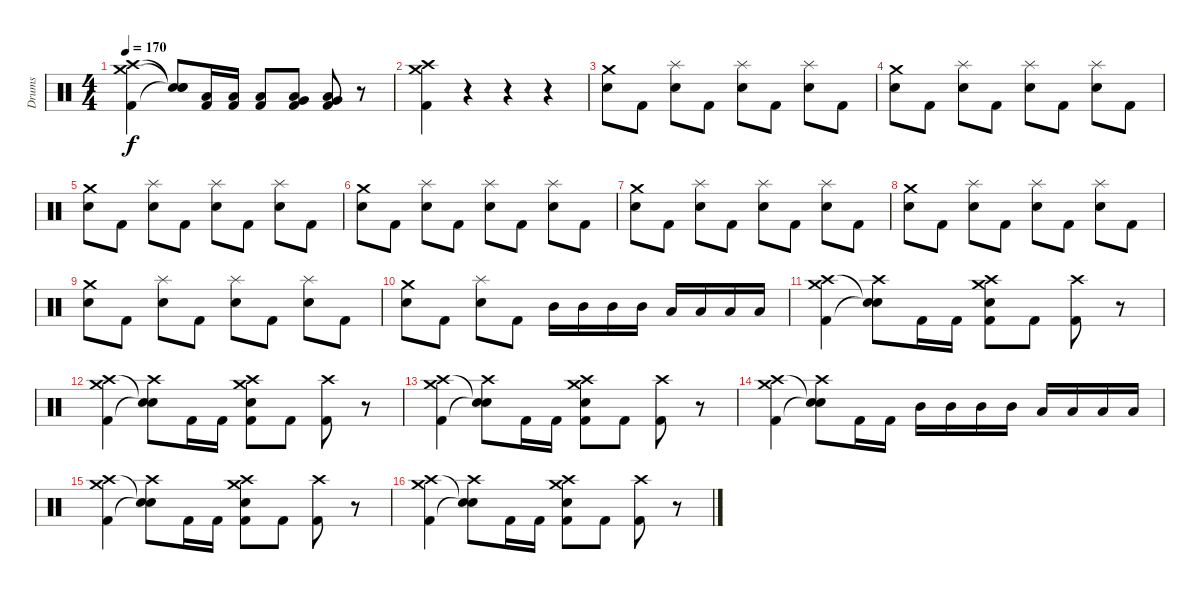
\track ("Drums" "Drums") {instrument percussion}
\staff {score}
\articulation defaults
\ts (4 4)
\tempo 170
\clef neutral
\ks c
("Crash medium (hit)" "Crash high (hit)" "Kick (hit) 2").4{dy f} ("Snare (hit)"{t} "Snare (hit)"{t} "Snare (hit)"{t}).8 ("Low Tom (hit)" "Kick (hit) 2").16 ("Low Tom (hit)" "Kick (hit) 2").16 ("Low Tom (hit)" "Kick (hit) 2").8 ("Low Tom (hit)" "Very Low Tom (hit)" "Kick (hit) 2").8 ("Low Tom (hit)" "Very Low Tom (hit)" "Kick (hit) 2").8 r.8 |
("Crash medium (hit)" "Crash high (hit)" "Kick (hit) 2").4 r.4 r.4 r.4 |
("Crash medium (hit)" "Snare (hit) 2").8 "Kick (hit) 2".8 ("Splash (hit)" "Snare (hit) 2").8 "Kick (hit) 2".8 ("Splash (hit)" "Snare (hit) 2").8 "Kick (hit) 2".8 ("Splash (hit)" "Snare (hit) 2").8 "Kick (hit) 2".8 |
("Crash medium (hit)" "Snare (hit) 2").8 "Kick (hit) 2".8 ("Splash (hit)" "Snare (hit) 2").8 "Kick (hit) 2".8 ("Splash (hit)" "Snare (hit) 2").8 "Kick (hit) 2".8 ("Splash (hit)" "Snare (hit) 2").8 "Kick (hit) 2".8 |
("Crash medium (hit)" "Snare (hit) 2").8 "Kick (hit) 2".8 ("Splash (hit)" "Snare (hit) 2").8 "Kick (hit) 2".8 ("Splash (hit)" "Snare (hit) 2").8 "Kick (hit) 2".8 ("Splash (hit)" "Snare (hit) 2").8 "Kick (hit) 2".8 |
("Crash medium (hit)" "Snare (hit) 2").8 "Kick (hit) 2".8 ("Splash (hit)" "Snare (hit) 2").8 "Kick (hit) 2".8 ("Splash (hit)" "Snare (hit) 2").8 "Kick (hit) 2".8 ("Splash (hit)" "Snare (hit) 2").8 "Kick (hit) 2".8 |
("Crash medium (hit)" "Snare (hit) 2").8 "Kick (hit) 2".8 ("Splash (hit)" "Snare (hit) 2").8 "Kick (hit) 2".8 ("Splash (hit)" "Snare (hit) 2").8 "Kick (hit) 2".8 ("Splash (hit)" "Snare (hit) 2").8 "Kick (hit) 2".8 |
("Crash medium (hit)" "Snare (hit) 2").8 "Kick (hit) 2".8 ("Splash (hit)" "Snare (hit) 2").8 "Kick (hit) 2".8 ("Splash (hit)" "Snare (hit) 2").8 "Kick (hit) 2".8 ("Splash (hit)" "Snare (hit) 2").8 "Kick (hit) 2".8 |
("Crash medium (hit)" "Snare (hit) 2").8 "Kick (hit) 2".8 ("Splash (hit)" "Snare (hit) 2").8 "Kick (hit) 2".8 ("Splash (hit)" "Snare (hit) 2").8 "Kick (hit) 2".8 ("Splash (hit)" "Snare (hit) 2").8 "Kick (hit) 2".8 |
("Crash medium (hit)" "Snare (hit) 2").8 "Kick (hit) 2".8 ("Splash (hit)" "Snare (hit) 2").8 "Kick (hit) 2".8 "Mid Tom (hit)".16 "Mid Tom (hit)".16 "Mid Tom (hit)".16 "Mid Tom (hit)".16 "Low Tom (hit)".16 "Low Tom (hit)".16 "Low Tom (hit)".16 "Low Tom (hit)".16 |
("Crash medium (hit)" "Crash high (hit)" "Kick (hit) 2").4 ("Crash high (hit)" "Snare (hit)"{t} "Snare (hit)"{t}).8 "Kick (hit) 2".16 "Kick (hit) 2".16 ("Crash high (hit)" "Snare (hit) 2" "Crash medium (hit)" "Kick (hit) 2").8 "Kick (hit) 2".8 ("Crash high (hit)" "Kick (hit) 2").8 r.8 |
("Crash medium (hit)" "Crash high (hit)" "Kick (hit) 2").4 ("Crash high (hit)" "Snare (hit)"{t} "Snare (hit)"{t}).8 "Kick (hit) 2".16 "Kick (hit) 2".16 ("Crash high (hit)" "Snare (hit) 2" "Crash medium (hit)" "Kick (hit) 2").8 "Kick (hit) 2".8 ("Crash high (hit)" "Kick (hit) 2").8 r.8 |
("Crash medium (hit)" "Crash high (hit)" "Kick (hit) 2").4 ("Crash high (hit)" "Snare (hit)"{t} "Snare (hit)"{t}).8 "Kick (hit) 2".16 "Kick (hit) 2".16 ("Crash high (hit)" "Snare (hit) 2" "Crash medium (hit)" "Kick (hit) 2").8 "Kick (hit) 2".8 ("Crash high (hit)" "Kick (hit) 2").8 r.8 |
("Crash medium (hit)" "Crash high (hit)" "Kick (hit) 2").4 ("Crash high (hit)" "Snare (hit)"{t} "Snare (hit)"{t}).8 "Kick (hit) 2".16 "Kick (hit) 2".16 "Mid Tom (hit)".16 "Mid Tom (hit)".16 "Mid Tom (hit)".16 "Mid Tom (hit)".16 "Low Tom (hit)".16 "Low Tom (hit)".16 "Low Tom (hit)".16 "Low Tom (hit)".16 |
("Crash medium (hit)" "Crash high (hit)" "Kick (hit) 2").4 ("Crash high (hit)" "Snare (hit)"{t} "Snare (hit)"{t}).8 "Kick (hit) 2".16 "Kick (hit) 2".16 ("Crash high (hit)" "Snare (hit) 2" "Crash medium (hit)" "Kick (hit) 2").8 "Kick (hit) 2".8 ("Crash high (hit)" "Kick (hit) 2").8 r.8 |
("Crash medium (hit)" "Crash high (hit)" "Kick (hit) 2").4 ("Crash high (hit)" "Snare (hit)"{t} "Snare (hit)"{t}).8 "Kick (hit) 2".16 "Kick (hit) 2".16 ("Crash high (hit)" "Snare (hit) 2" "Crash medium (hit)" "Kick (hit) 2").8 "Kick (hit) 2".8 ("Crash high (hit)" "Kick (hit) 2").8 r.8
